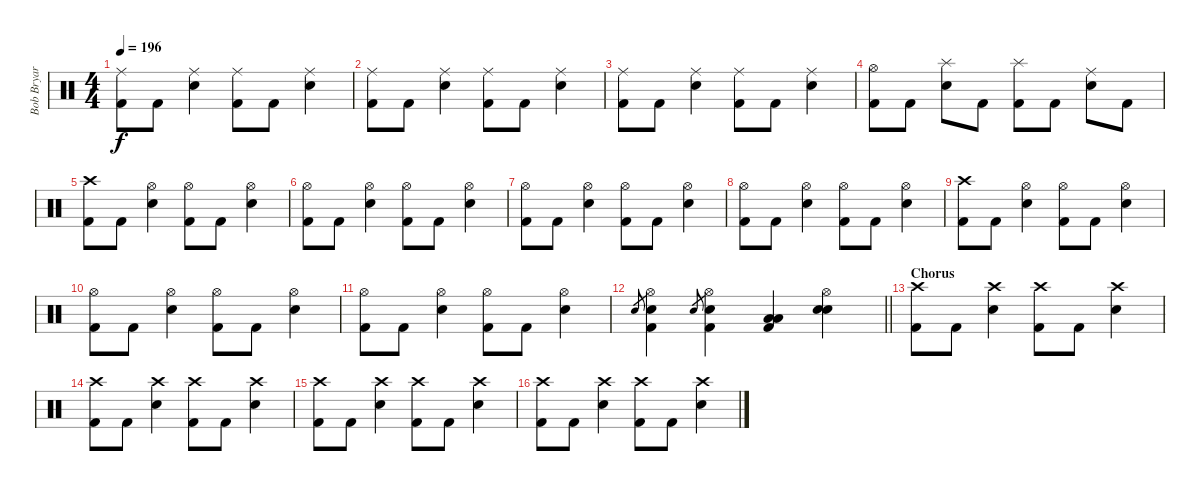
\track ("Bob Bryar (percussion)" "Bob Bryar ") {instrument percussion}
\staff {score}
\articulation defaults
\ts (4 4)
\tempo 196
\clef neutral
\ks c
("Ride (middle)" "Kick (hit) 2").8{dy f} "Kick (hit) 2".8 ("Ride (middle)" "Electric Snare (hit)").4 ("Ride (middle)" "Kick (hit) 2").8 "Kick (hit) 2".8 ("Ride (middle)" "Electric Snare (hit)").4 |
("Ride (middle)" "Kick (hit) 2").8 "Kick (hit) 2".8 ("Ride (middle)" "Electric Snare (hit)").4 ("Ride (middle)" "Kick (hit) 2").8 "Kick (hit) 2".8 ("Ride (middle)" "Electric Snare (hit)").4 |
("Ride (middle)" "Kick (hit) 2").8 "Kick (hit) 2".8 ("Ride (middle)" "Electric Snare (hit)").4 ("Ride (middle)" "Kick (hit) 2").8 "Kick (hit) 2".8 ("Ride (middle)" "Electric Snare (hit)").4 |
("Hi-Hat (open)" "Kick (hit) 2").8 "Kick (hit) 2".8 ("Splash (hit)" "Electric Snare (hit)").8 "Kick (hit) 2".8 ("Splash (hit)" "Kick (hit) 2").8 "Kick (hit) 2".8 ("Ride (middle)" "Electric Snare (hit)").8 "Kick (hit) 2".8 |
("Crash high (hit)" "Kick (hit) 2").8 "Kick (hit) 2".8 ("Hi-Hat (open)" "Electric Snare (hit)").4 ("Hi-Hat (open)" "Kick (hit) 2").8 "Kick (hit) 2".8 ("Hi-Hat (open)" "Electric Snare (hit)").4 |
("Hi-Hat (open)" "Kick (hit) 2").8 "Kick (hit) 2".8 ("Hi-Hat (open)" "Electric Snare (hit)").4 ("Hi-Hat (open)" "Kick (hit) 2").8 "Kick (hit) 2".8 ("Hi-Hat (open)" "Electric Snare (hit)").4 |
("Hi-Hat (open)" "Kick (hit) 2").8 "Kick (hit) 2".8 ("Hi-Hat (open)" "Electric Snare (hit)").4 ("Hi-Hat (open)" "Kick (hit) 2").8 "Kick (hit) 2".8 ("Hi-Hat (open)" "Electric Snare (hit)").4 |
("Hi-Hat (open)" "Kick (hit) 2").8 "Kick (hit) 2".8 ("Hi-Hat (open)" "Electric Snare (hit)").4 ("Hi-Hat (open)" "Kick (hit) 2").8 "Kick (hit) 2".8 ("Hi-Hat (open)" "Electric Snare (hit)").4 |
("Crash high (hit)" "Kick (hit) 2").8 "Kick (hit) 2".8 ("Hi-Hat (open)" "Electric Snare (hit)").4 ("Hi-Hat (open)" "Kick (hit) 2").8 "Kick (hit) 2".8 ("Hi-Hat (open)" "Electric Snare (hit)").4 |
("Hi-Hat (open)" "Kick (hit) 2").8 "Kick (hit) 2".8 ("Hi-Hat (open)" "Electric Snare (hit)").4 ("Hi-Hat (open)" "Kick (hit) 2").8 "Kick (hit) 2".8 ("Hi-Hat (open)" "Electric Snare (hit)").4 |
("Hi-Hat (open)" "Kick (hit) 2").8 "Kick (hit) 2".8 ("Hi-Hat (open)" "Electric Snare (hit)").4 ("Hi-Hat (open)" "Kick (hit) 2").8 "Kick (hit) 2".8 ("Hi-Hat (open)" "Electric Snare (hit)").4 |
\barLineRight lightlight "Electric Snare (hit)".8{gr}
("Hi-Hat (open)" "Electric Snare (hit)" "Kick (hit) 2").4 "Electric Snare (hit)".8{gr} ("Hi-Hat (open)" "Electric Snare (hit)" "Kick (hit) 2").4 ("Low Floor Tom (hit)" "Low Floor Tom (hit)" "Kick (hit) 2").4 ("Hi-Hat (open)" "Electric Snare (hit)" "Electric Snare (hit)").4 |
\section ("" "Chorus")
("Crash high (hit)" "Kick (hit) 2").8 "Kick (hit) 2".8 ("Crash high (hit)" "Electric Snare (hit)").4 ("Crash high (hit)" "Kick (hit) 2").8 "Kick (hit) 2".8 ("Crash high (hit)" "Electric Snare (hit)").4 |
("Crash high (hit)" "Kick (hit) 2").8 "Kick (hit) 2".8 ("Crash high (hit)" "Electric Snare (hit)").4 ("Crash high (hit)" "Kick (hit) 2").8 "Kick (hit) 2".8 ("Crash high (hit)" "Electric Snare (hit)").4 |
("Crash high (hit)" "Kick (hit) 2").8 "Kick (hit) 2".8 ("Crash high (hit)" "Electric Snare (hit)").4 ("Crash high (hit)" "Kick (hit) 2").8 "Kick (hit) 2".8 ("Crash high (hit)" "Electric Snare (hit)").4 |
("Crash high (hit)" "Kick (hit) 2").8 "Kick (hit) 2".8 ("Crash high (hit)" "Electric Snare (hit)").4 ("Crash high (hit)" "Kick (hit) 2").8 "Kick (hit) 2".8 ("Crash high (hit)" "Electric Snare (hit)").4
